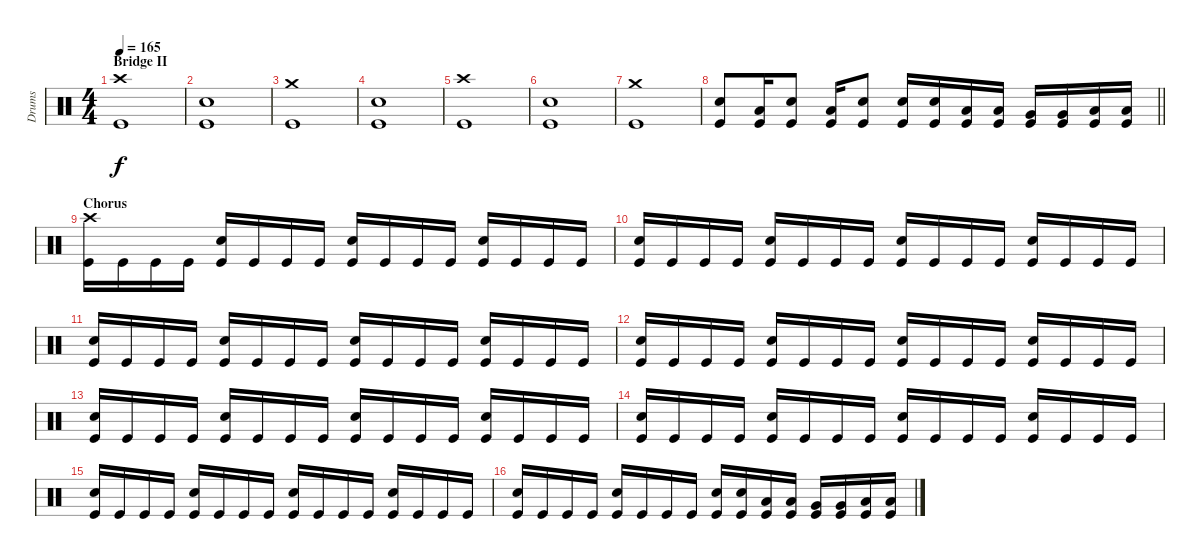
\track ("Drums" "Drums") {instrument percussion}
\staff {score}
\articulation defaults
\ts (4 4)
\section ("" "Bridge II")
\tempo 165
\clef neutral
\ks c
("Kick (hit)" "Crash high (hit)").1{dy f} |
("Kick (hit)" "Snare (hit) 2").1 |
("Kick (hit)" "Crash medium (hit)").1 |
("Kick (hit)" "Snare (hit) 2").1 |
("Kick (hit)" "Crash high (hit)").1 |
("Kick (hit)" "Snare (hit) 2").1 |
("Kick (hit)" "Crash medium (hit)").1 |
\barLineRight lightlight
("Kick (hit)" "Snare (hit) 2").8 ("Kick (hit)" "Low Tom (hit)").16 ("Kick (hit)" "Snare (hit) 2").8 ("Kick (hit)" "Low Tom (hit)").16 ("Kick (hit)" "Snare (hit) 2").8 ("Kick (hit)" "Snare (hit) 2").16 ("Kick (hit)" "Snare (hit) 2").16 ("Kick (hit)" "Low Tom (hit)").16 ("Kick (hit)" "Low Tom (hit)").16 ("Kick (hit)" "Very Low Tom (hit)").16 ("Kick (hit)" "Very Low Tom (hit)").16 ("Kick (hit)" "Low Floor Tom (hit)").16 ("Kick (hit)" "Low Floor Tom (hit)").16 |
\section ("" "Chorus")
("Kick (hit)" "Crash high (hit)").16 "Kick (hit)".16 "Kick (hit)".16 "Kick (hit)".16 ("Kick (hit)" "Snare (hit) 2").16 "Kick (hit)".16 "Kick (hit)".16 "Kick (hit)".16 ("Kick (hit)" "Snare (hit) 2").16 "Kick (hit)".16 "Kick (hit)".16 "Kick (hit)".16 ("Kick (hit)" "Snare (hit) 2").16 "Kick (hit)".16 "Kick (hit)".16 "Kick (hit)".16 |
("Kick (hit)" "Snare (hit) 2").16 "Kick (hit)".16 "Kick (hit)".16 "Kick (hit)".16 ("Kick (hit)" "Snare (hit) 2").16 "Kick (hit)".16 "Kick (hit)".16 "Kick (hit)".16 ("Kick (hit)" "Snare (hit) 2").16 "Kick (hit)".16 "Kick (hit)".16 "Kick (hit)".16 ("Kick (hit)" "Snare (hit) 2").16 "Kick (hit)".16 "Kick (hit)".16 "Kick (hit)".16 |
("Kick (hit)" "Snare (hit) 2").16 "Kick (hit)".16 "Kick (hit)".16 "Kick (hit)".16 ("Kick (hit)" "Snare (hit) 2").16 "Kick (hit)".16 "Kick (hit)".16 "Kick (hit)".16 ("Kick (hit)" "Snare (hit) 2").16 "Kick (hit)".16 "Kick (hit)".16 "Kick (hit)".16 ("Kick (hit)" "Snare (hit) 2").16 "Kick (hit)".16 "Kick (hit)".16 "Kick (hit)".16 |
("Kick (hit)" "Snare (hit) 2").16 "Kick (hit)".16 "Kick (hit)".16 "Kick (hit)".16 ("Kick (hit)" "Snare (hit) 2").16 "Kick (hit)".16 "Kick (hit)".16 "Kick (hit)".16 ("Kick (hit)" "Snare (hit) 2").16 "Kick (hit)".16 "Kick (hit)".16 "Kick (hit)".16 ("Kick (hit)" "Snare (hit) 2").16 "Kick (hit)".16 "Kick (hit)".16 "Kick (hit)".16 |
("Kick (hit)" "Snare (hit) 2").16 "Kick (hit)".16 "Kick (hit)".16 "Kick (hit)".16 ("Kick (hit)" "Snare (hit) 2").16 "Kick (hit)".16 "Kick (hit)".16 "Kick (hit)".16 ("Kick (hit)" "Snare (hit) 2").16 "Kick (hit)".16 "Kick (hit)".16 "Kick (hit)".16 ("Kick (hit)" "Snare (hit) 2").16 "Kick (hit)".16 "Kick (hit)".16 "Kick (hit)".16 |
("Kick (hit)" "Snare (hit) 2").16 "Kick (hit)".16 "Kick (hit)".16 "Kick (hit)".16 ("Kick (hit)" "Snare (hit) 2").16 "Kick (hit)".16 "Kick (hit)".16 "Kick (hit)".16 ("Kick (hit)" "Snare (hit) 2").16 "Kick (hit)".16 "Kick (hit)".16 "Kick (hit)".16 ("Kick (hit)" "Snare (hit) 2").16 "Kick (hit)".16 "Kick (hit)".16 "Kick (hit)".16 |
("Kick (hit)" "Snare (hit) 2").16 "Kick (hit)".16 "Kick (hit)".16 "Kick (hit)".16 ("Kick (hit)" "Snare (hit) 2").16 "Kick (hit)".16 "Kick (hit)".16 "Kick (hit)".16 ("Kick (hit)" "Snare (hit) 2").16 "Kick (hit)".16 "Kick (hit)".16 "Kick (hit)".16 ("Kick (hit)" "Snare (hit) 2").16 "Kick (hit)".16 "Kick (hit)".16 "Kick (hit)".16 |
("Kick (hit)" "Snare (hit) 2").16 "Kick (hit)".16 "Kick (hit)".16 "Kick (hit)".16 ("Kick (hit)" "Snare (hit) 2").16 "Kick (hit)".16 "Kick (hit)".16 "Kick (hit)".16 ("Kick (hit)" "Snare (hit) 2").16 ("Kick (hit)" "Snare (hit) 2").16 ("Kick (hit)" "Low Tom (hit)").16 ("Kick (hit)" "Low Tom (hit)").16 ("Kick (hit)" "Very Low Tom (hit)").16 ("Kick (hit)" "Very Low Tom (hit)").16 ("Kick (hit)" "Low Floor Tom (hit)").16 ("Kick (hit)" "Low Floor Tom (hit)").16
